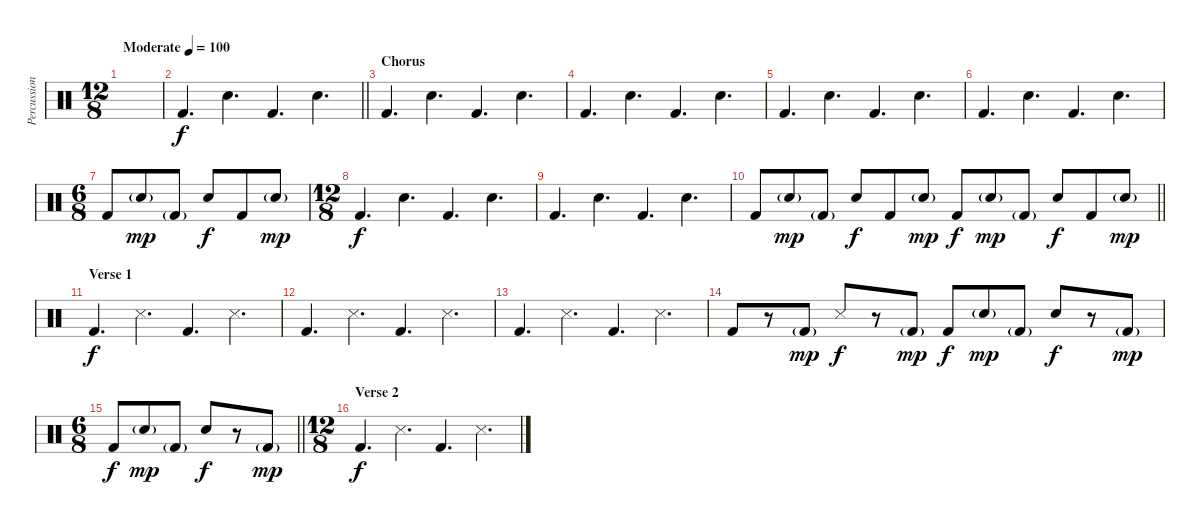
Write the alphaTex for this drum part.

\track ("Percussion" "Percussion") {instrument percussion}
\staff {score}
\articulation defaults
\ts (12 8)
\tempo (100 "Moderate")
\clef neutral
\ks c
|
\barLineRight lightlight "Kick (hit) 2".4{d} "Snare (hit) 2".4{d} "Kick (hit) 2".4{d} "Snare (hit) 2".4{d}
|
\section ("" "Chorus")
"Kick (hit) 2".4{d} "Snare (hit) 2".4{d} "Kick (hit) 2".4{d} "Snare (hit) 2".4{d} |
"Kick (hit) 2".4{d} "Snare (hit) 2".4{d} "Kick (hit) 2".4{d} "Snare (hit) 2".4{d} |
"Kick (hit) 2".4{d} "Snare (hit) 2".4{d} "Kick (hit) 2".4{d} "Snare (hit) 2".4{d} |
"Kick (hit) 2".4{d} "Snare (hit) 2".4{d} "Kick (hit) 2".4{d} "Snare (hit) 2".4{d} |
\ts (6 8)
"Kick (hit) 2".8 "Snare (hit) 2"{g}.8{dy mp} "Kick (hit) 2"{g}.8 "Snare (hit) 2".8{dy f} "Kick (hit) 2".8 "Snare (hit) 2"{g}.8{dy mp} |
\ts (12 8)
"Kick (hit) 2".4{d dy f} "Snare (hit) 2".4{d} "Kick (hit) 2".4{d} "Snare (hit) 2".4{d} |
"Kick (hit) 2".4{d} "Snare (hit) 2".4{d} "Kick (hit) 2".4{d} "Snare (hit) 2".4{d} |
\barLineRight lightlight "Kick (hit) 2".8 "Snare (hit) 2"{g}.8{dy mp} "Kick (hit) 2"{g}.8 "Snare (hit) 2".8{dy f} "Kick (hit) 2".8 "Snare (hit) 2"{g}.8{dy mp} "Kick (hit) 2".8{dy f} "Snare (hit) 2"{g}.8{dy mp} "Kick (hit) 2"{g}.8 "Snare (hit) 2".8{dy f} "Kick (hit) 2".8 "Snare (hit) 2"{g}.8{dy mp}
|
\section ("" "Verse 1")
"Kick (hit) 2".4{d dy f} "Snare (side stick) 3".4{d} "Kick (hit) 2".4{d} "Snare (side stick) 3".4{d} |
"Kick (hit) 2".4{d} "Snare (side stick) 3".4{d} "Kick (hit) 2".4{d} "Snare (side stick) 3".4{d} |
"Kick (hit) 2".4{d} "Snare (side stick) 3".4{d} "Kick (hit) 2".4{d} "Snare (side stick) 3".4{d} |
"Kick (hit) 2".8 r.8 "Kick (hit) 2"{g}.8{dy mp} "Snare (side stick) 3".8{dy f} r.8 "Kick (hit) 2"{g}.8{dy mp} "Kick (hit) 2".8{dy f} "Snare (hit) 2"{g}.8{dy mp} "Kick (hit) 2"{g}.8 "Snare (hit) 2".8{dy f} r.8 "Kick (hit) 2"{g}.8{dy mp} |
\ts (6 8)
\barLineRight lightlight "Kick (hit) 2".8{dy f} "Snare (hit) 2"{g}.8{dy mp} "Kick (hit) 2"{g}.8 "Snare (hit) 2".8{dy f}
r.8 "Kick (hit) 2"{g}.8{dy mp} |
\ts (12 8)
\section ("" "Verse 2")
"Kick (hit) 2".4{d dy f} "Snare (side stick) 3".4{d} "Kick (hit) 2".4{d} "Snare (side stick) 3".4{d}
